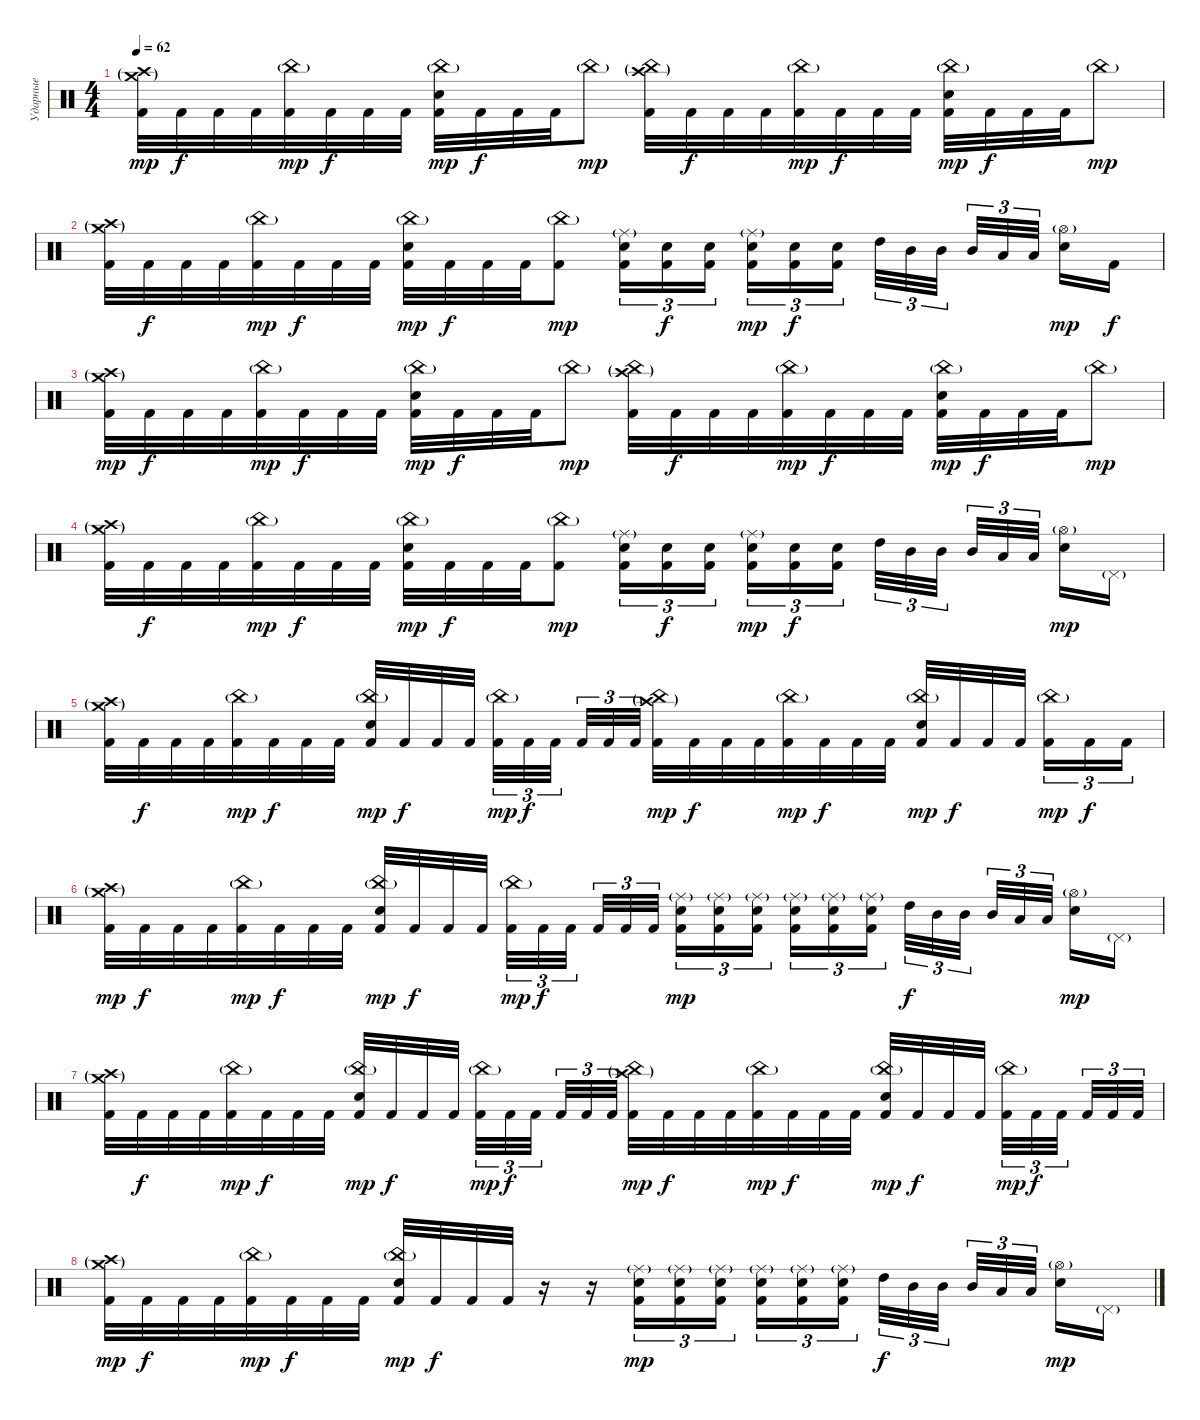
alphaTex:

\track ("Ударные" "Ударные") {instrument percussion}
\staff {score}
\articulation defaults
\ts (4 4)
\tempo 62
\clef neutral
\ks c
("Crash medium (hit)"{g} "Crash high (hit)"{g} "Kick (hit) 2").32{dy mp volume 16} "Kick (hit) 2".32{dy f} "Kick (hit) 2".32 "Kick (hit) 2".32 ("China (hit)"{g} "Kick (hit) 2").32{dy mp} "Kick (hit) 2".32{dy f} "Kick (hit) 2".32 "Kick (hit) 2".32 ("China (hit)"{g} "Electric Snare (hit)" "Kick (hit) 2").32{dy mp} "Kick (hit) 2".32{dy f} "Kick (hit) 2".32 "Kick (hit) 2".32 "China (hit)"{g}.8{dy mp} ("China (hit)"{g} "Crash high (hit)"{g} "Kick (hit) 2").32 "Kick (hit) 2".32{dy f} "Kick (hit) 2".32 "Kick (hit) 2".32 ("China (hit)"{g} "Kick (hit) 2").32{dy mp} "Kick (hit) 2".32{dy f} "Kick (hit) 2".32 "Kick (hit) 2".32 ("China (hit)"{g} "Electric Snare (hit)" "Kick (hit) 2").32{dy mp} "Kick (hit) 2".32{dy f} "Kick (hit) 2".32 "Kick (hit) 2".32 "China (hit)"{g}.8{dy mp} |
("Crash medium (hit)"{g} "Crash high (hit)"{g} "Kick (hit) 2").32 "Kick (hit) 2".32{dy f} "Kick (hit) 2".32 "Kick (hit) 2".32 ("China (hit)"{g} "Kick (hit) 2").32{dy mp} "Kick (hit) 2".32{dy f} "Kick (hit) 2".32 "Kick (hit) 2".32 ("China (hit)"{g} "Electric Snare (hit)" "Kick (hit) 2").32{dy mp} "Kick (hit) 2".32{dy f} "Kick (hit) 2".32 "Kick (hit) 2".32 ("China (hit)"{g} "Kick (hit) 2").8{dy mp} ("Ride (middle)"{g} "Electric Snare (hit)" "Kick (hit) 2").16{tu (3 2)} ("Electric Snare (hit)" "Kick (hit) 2").16{tu (3 2) dy f} ("Electric Snare (hit)" "Kick (hit) 2").16{tu (3 2)} ("Ride (middle)"{g} "Electric Snare (hit)" "Kick (hit) 2").16{tu (3 2) dy mp} ("Electric Snare (hit)" "Kick (hit) 2").16{tu (3 2) dy f} ("Electric Snare (hit)" "Kick (hit) 2").16{tu (3 2)} "High Tom (hit)".32{tu (3 2)} "Mid Tom (hit)".32{tu (3 2)} "Mid Tom (hit)".32{tu (3 2)} "Mid Tom (hit)".32{tu (3 2)} "Low Tom (hit)".32{tu (3 2)} "Low Tom (hit)".32{tu (3 2)} ("Hi-Hat (open)"{g} "Electric Snare (hit)").16{dy mp} "Kick (hit) 2".16{dy f} |
("Crash medium (hit)"{g} "Crash high (hit)"{g} "Kick (hit) 2").32{dy mp} "Kick (hit) 2".32{dy f} "Kick (hit) 2".32 "Kick (hit) 2".32 ("China (hit)"{g} "Kick (hit) 2").32{dy mp} "Kick (hit) 2".32{dy f} "Kick (hit) 2".32 "Kick (hit) 2".32 ("China (hit)"{g} "Electric Snare (hit)" "Kick (hit) 2").32{dy mp} "Kick (hit) 2".32{dy f} "Kick (hit) 2".32 "Kick (hit) 2".32 "China (hit)"{g}.8{dy mp} ("China (hit)"{g} "Crash high (hit)"{g} "Kick (hit) 2").32 "Kick (hit) 2".32{dy f} "Kick (hit) 2".32 "Kick (hit) 2".32 ("China (hit)"{g} "Kick (hit) 2").32{dy mp} "Kick (hit) 2".32{dy f} "Kick (hit) 2".32 "Kick (hit) 2".32 ("China (hit)"{g} "Electric Snare (hit)" "Kick (hit) 2").32{dy mp} "Kick (hit) 2".32{dy f} "Kick (hit) 2".32 "Kick (hit) 2".32 "China (hit)"{g}.8{dy mp} |
("Crash medium (hit)"{g} "Crash high (hit)"{g} "Kick (hit) 2").32 "Kick (hit) 2".32{dy f} "Kick (hit) 2".32 "Kick (hit) 2".32 ("China (hit)"{g} "Kick (hit) 2").32{dy mp} "Kick (hit) 2".32{dy f} "Kick (hit) 2".32 "Kick (hit) 2".32 ("China (hit)"{g} "Electric Snare (hit)" "Kick (hit) 2").32{dy mp} "Kick (hit) 2".32{dy f} "Kick (hit) 2".32 "Kick (hit) 2".32 ("China (hit)"{g} "Kick (hit) 2").8{dy mp} ("Ride (middle)"{g} "Electric Snare (hit)" "Kick (hit) 2").16{tu (3 2)} ("Electric Snare (hit)" "Kick (hit) 2").16{tu (3 2) dy f} ("Electric Snare (hit)" "Kick (hit) 2").16{tu (3 2)} ("Ride (middle)"{g} "Electric Snare (hit)" "Kick (hit) 2").16{tu (3 2) dy mp} ("Electric Snare (hit)" "Kick (hit) 2").16{tu (3 2) dy f} ("Electric Snare (hit)" "Kick (hit) 2").16{tu (3 2)} "High Tom (hit)".32{tu (3 2)} "Mid Tom (hit)".32{tu (3 2)} "Mid Tom (hit)".32{tu (3 2)} "Mid Tom (hit)".32{tu (3 2)} "Low Tom (hit)".32{tu (3 2)} "Low Tom (hit)".32{tu (3 2)} ("Hi-Hat (open)"{g} "Electric Snare (hit)").16{dy mp} "Pedal Hi-Hat (hit)"{g}.16{volume 8} |
("Crash medium (hit)"{g} "Crash high (hit)"{g} "Kick (hit) 2").32{volume 16} "Kick (hit) 2".32{dy f} "Kick (hit) 2".32 "Kick (hit) 2".32 ("China (hit)"{g} "Kick (hit) 2").32{dy mp} "Kick (hit) 2".32{dy f} "Kick (hit) 2".32 "Kick (hit) 2".32 ("China (hit)"{g} "Electric Snare (hit)" "Kick (hit) 2").32{dy mp} "Kick (hit) 2".32{dy f} "Kick (hit) 2".32 "Kick (hit) 2".32 ("China (hit)"{g} "Kick (hit) 2").32{tu (3 2) dy mp} "Kick (hit) 2".32{tu (3 2) dy f} "Kick (hit) 2".32{tu (3 2)} "Kick (hit) 2".32{tu (3 2)} "Kick (hit) 2".32{tu (3 2)} "Kick (hit) 2".32{tu (3 2)} ("China (hit)"{g} "Crash high (hit)"{g} "Kick (hit) 2").32{dy mp} "Kick (hit) 2".32{dy f} "Kick (hit) 2".32 "Kick (hit) 2".32 ("China (hit)"{g} "Kick (hit) 2").32{dy mp} "Kick (hit) 2".32{dy f} "Kick (hit) 2".32 "Kick (hit) 2".32 ("China (hit)"{g} "Electric Snare (hit)" "Kick (hit) 2").32{dy mp} "Kick (hit) 2".32{dy f} "Kick (hit) 2".32 "Kick (hit) 2".32 ("China (hit)"{g} "Kick (hit) 2").16{tu (3 2) dy mp} "Kick (hit) 2".16{tu (3 2) dy f} "Kick (hit) 2".16{tu (3 2)} |
("Crash medium (hit)"{g} "Crash high (hit)"{g} "Kick (hit) 2").32{dy mp} "Kick (hit) 2".32{dy f} "Kick (hit) 2".32 "Kick (hit) 2".32 ("China (hit)"{g} "Kick (hit) 2").32{dy mp} "Kick (hit) 2".32{dy f} "Kick (hit) 2".32 "Kick (hit) 2".32 ("China (hit)"{g} "Electric Snare (hit)" "Kick (hit) 2").32{dy mp} "Kick (hit) 2".32{dy f} "Kick (hit) 2".32 "Kick (hit) 2".32 ("China (hit)"{g} "Kick (hit) 2").32{tu (3 2) dy mp} "Kick (hit) 2".32{tu (3 2) dy f} "Kick (hit) 2".32{tu (3 2)} "Kick (hit) 2".32{tu (3 2)} "Kick (hit) 2".32{tu (3 2)} "Kick (hit) 2".32{tu (3 2)} ("Ride (middle)"{g} "Electric Snare (hit)" "Kick (hit) 2").16{tu (3 2) dy mp} ("Ride (middle)"{g} "Electric Snare (hit)" "Kick (hit) 2").16{tu (3 2)} ("Ride (middle)"{g} "Electric Snare (hit)" "Kick (hit) 2").16{tu (3 2)} ("Ride (middle)"{g} "Electric Snare (hit)" "Kick (hit) 2").16{tu (3 2)} ("Ride (middle)"{g} "Electric Snare (hit)" "Kick (hit) 2").16{tu (3 2)} ("Ride (middle)"{g} "Electric Snare (hit)" "Kick (hit) 2").16{tu (3 2)} "High Tom (hit)".32{tu (3 2) dy f} "Mid Tom (hit)".32{tu (3 2)} "Mid Tom (hit)".32{tu (3 2)} "Mid Tom (hit)".32{tu (3 2)} "Low Tom (hit)".32{tu (3 2)} "Low Tom (hit)".32{tu (3 2)} ("Hi-Hat (open)"{g} "Electric Snare (hit)").16{dy mp} "Pedal Hi-Hat (hit)"{g}.16{volume 6} |
("Crash medium (hit)"{g} "Crash high (hit)"{g} "Kick (hit) 2").32{volume 16} "Kick (hit) 2".32{dy f} "Kick (hit) 2".32 "Kick (hit) 2".32 ("China (hit)"{g} "Kick (hit) 2").32{dy mp} "Kick (hit) 2".32{dy f} "Kick (hit) 2".32 "Kick (hit) 2".32 ("China (hit)"{g} "Electric Snare (hit)" "Kick (hit) 2").32{dy mp} "Kick (hit) 2".32{dy f} "Kick (hit) 2".32 "Kick (hit) 2".32 ("China (hit)"{g} "Kick (hit) 2").32{tu (3 2) dy mp} "Kick (hit) 2".32{tu (3 2) dy f} "Kick (hit) 2".32{tu (3 2)} "Kick (hit) 2".32{tu (3 2)} "Kick (hit) 2".32{tu (3 2)} "Kick (hit) 2".32{tu (3 2)} ("China (hit)"{g} "Crash high (hit)"{g} "Kick (hit) 2").32{dy mp} "Kick (hit) 2".32{dy f} "Kick (hit) 2".32 "Kick (hit) 2".32 ("China (hit)"{g} "Kick (hit) 2").32{dy mp} "Kick (hit) 2".32{dy f} "Kick (hit) 2".32 "Kick (hit) 2".32 ("China (hit)"{g} "Electric Snare (hit)" "Kick (hit) 2").32{dy mp} "Kick (hit) 2".32{dy f} "Kick (hit) 2".32 "Kick (hit) 2".32 ("China (hit)"{g} "Kick (hit) 2").32{tu (3 2) dy mp} "Kick (hit) 2".32{tu (3 2) dy f} "Kick (hit) 2".32{tu (3 2)} "Kick (hit) 2".32{tu (3 2)} "Kick (hit) 2".32{tu (3 2)} "Kick (hit) 2".32{tu (3 2)} |
("Crash medium (hit)"{g} "Crash high (hit)"{g} "Kick (hit) 2").32{dy mp} "Kick (hit) 2".32{dy f} "Kick (hit) 2".32 "Kick (hit) 2".32 ("China (hit)"{g} "Kick (hit) 2").32{dy mp} "Kick (hit) 2".32{dy f} "Kick (hit) 2".32 "Kick (hit) 2".32 ("China (hit)"{g} "Electric Snare (hit)" "Kick (hit) 2").32{dy mp} "Kick (hit) 2".32{dy f} "Kick (hit) 2".32 "Kick (hit) 2".32 r.16{volume 0} r.16 ("Ride (middle)"{g} "Electric Snare (hit)" "Kick (hit) 2").16{tu (3 2) dy mp volume 16} ("Ride (middle)"{g} "Electric Snare (hit)" "Kick (hit) 2").16{tu (3 2)} ("Ride (middle)"{g} "Electric Snare (hit)" "Kick (hit) 2").16{tu (3 2)} ("Ride (middle)"{g} "Electric Snare (hit)" "Kick (hit) 2").16{tu (3 2)} ("Ride (middle)"{g} "Electric Snare (hit)" "Kick (hit) 2").16{tu (3 2)} ("Ride (middle)"{g} "Electric Snare (hit)" "Kick (hit) 2").16{tu (3 2)} "High Tom (hit)".32{tu (3 2) dy f} "Mid Tom (hit)".32{tu (3 2)} "Mid Tom (hit)".32{tu (3 2)} "Mid Tom (hit)".32{tu (3 2)} "Low Tom (hit)".32{tu (3 2)} "Low Tom (hit)".32{tu (3 2)} ("Hi-Hat (open)"{g} "Electric Snare (hit)").16{dy mp} "Pedal Hi-Hat (hit)"{g}.16{volume 6}
